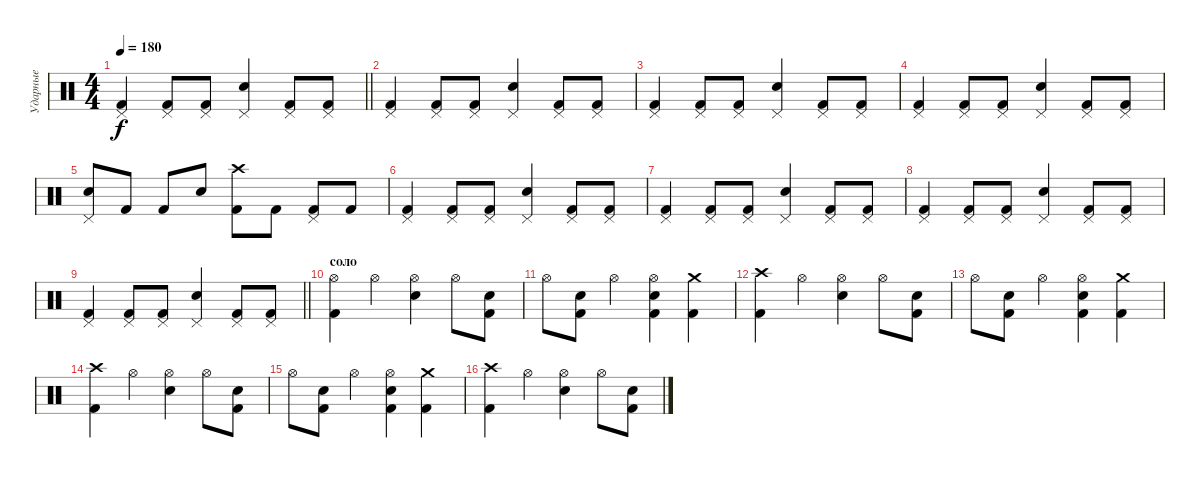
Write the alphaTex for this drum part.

\track ("Ударные" "Ударные") {instrument percussion}
\staff {score}
\articulation defaults
\ts (4 4)
\tempo 180
\clef neutral
\barLineRight lightlight
\ks c
("Kick (hit) 2" "Pedal Hi-Hat (hit)").4{dy f} ("Kick (hit) 2" "Pedal Hi-Hat (hit)").8 ("Kick (hit) 2" "Pedal Hi-Hat (hit)").8 ("Snare (hit) 2" "Pedal Hi-Hat (hit)").4 ("Kick (hit) 2" "Pedal Hi-Hat (hit)").8 ("Kick (hit) 2" "Pedal Hi-Hat (hit)").8 |
("Kick (hit) 2" "Pedal Hi-Hat (hit)").4 ("Kick (hit) 2" "Pedal Hi-Hat (hit)").8 ("Kick (hit) 2" "Pedal Hi-Hat (hit)").8 ("Snare (hit) 2" "Pedal Hi-Hat (hit)").4 ("Kick (hit) 2" "Pedal Hi-Hat (hit)").8 ("Kick (hit) 2" "Pedal Hi-Hat (hit)").8 |
("Kick (hit) 2" "Pedal Hi-Hat (hit)").4 ("Kick (hit) 2" "Pedal Hi-Hat (hit)").8 ("Kick (hit) 2" "Pedal Hi-Hat (hit)").8 ("Snare (hit) 2" "Pedal Hi-Hat (hit)").4 ("Kick (hit) 2" "Pedal Hi-Hat (hit)").8 ("Kick (hit) 2" "Pedal Hi-Hat (hit)").8 |
("Kick (hit) 2" "Pedal Hi-Hat (hit)").4 ("Kick (hit) 2" "Pedal Hi-Hat (hit)").8 ("Kick (hit) 2" "Pedal Hi-Hat (hit)").8 ("Snare (hit) 2" "Pedal Hi-Hat (hit)").4 ("Kick (hit) 2" "Pedal Hi-Hat (hit)").8 ("Kick (hit) 2" "Pedal Hi-Hat (hit)").8 |
("Snare (hit) 2" "Pedal Hi-Hat (hit)").8 "Kick (hit) 2".8 "Kick (hit) 2".8 "Snare (hit) 2".8 ("Kick (hit) 2" "Crash high (hit)").8 "Kick (hit) 2".8 ("Kick (hit) 2" "Pedal Hi-Hat (hit)").8 "Kick (hit) 2".8 |
("Kick (hit) 2" "Pedal Hi-Hat (hit)").4 ("Kick (hit) 2" "Pedal Hi-Hat (hit)").8 ("Kick (hit) 2" "Pedal Hi-Hat (hit)").8 ("Snare (hit) 2" "Pedal Hi-Hat (hit)").4 ("Kick (hit) 2" "Pedal Hi-Hat (hit)").8 ("Kick (hit) 2" "Pedal Hi-Hat (hit)").8 |
("Kick (hit) 2" "Pedal Hi-Hat (hit)").4 ("Kick (hit) 2" "Pedal Hi-Hat (hit)").8 ("Kick (hit) 2" "Pedal Hi-Hat (hit)").8 ("Snare (hit) 2" "Pedal Hi-Hat (hit)").4 ("Kick (hit) 2" "Pedal Hi-Hat (hit)").8 ("Kick (hit) 2" "Pedal Hi-Hat (hit)").8 |
("Kick (hit) 2" "Pedal Hi-Hat (hit)").4 ("Kick (hit) 2" "Pedal Hi-Hat (hit)").8 ("Kick (hit) 2" "Pedal Hi-Hat (hit)").8 ("Snare (hit) 2" "Pedal Hi-Hat (hit)").4 ("Kick (hit) 2" "Pedal Hi-Hat (hit)").8 ("Kick (hit) 2" "Pedal Hi-Hat (hit)").8 |
\barLineRight lightlight
("Kick (hit) 2" "Pedal Hi-Hat (hit)").4 ("Kick (hit) 2" "Pedal Hi-Hat (hit)").8 ("Kick (hit) 2" "Pedal Hi-Hat (hit)").8 ("Snare (hit) 2" "Pedal Hi-Hat (hit)").4 ("Kick (hit) 2" "Pedal Hi-Hat (hit)").8 ("Kick (hit) 2" "Pedal Hi-Hat (hit)").8 |
\section ("" "соло")
("Kick (hit) 2" "Hi-Hat (open)").4 "Hi-Hat (open)".4 ("Snare (hit) 2" "Hi-Hat (open)").4 "Hi-Hat (open)".8 ("Kick (hit) 2" "Snare (hit) 2").8 |
"Hi-Hat (open)".8 ("Kick (hit) 2" "Snare (hit) 2").8 "Hi-Hat (open)".4 ("Snare (hit) 2" "Kick (hit) 2" "Hi-Hat (open)").4 ("Kick (hit) 2" "Crash medium (hit)").4 |
("Kick (hit) 2" "Crash high (hit)").4 "Hi-Hat (open)".4 ("Snare (hit) 2" "Hi-Hat (open)").4 "Hi-Hat (open)".8 ("Kick (hit) 2" "Snare (hit) 2").8 |
"Hi-Hat (open)".8 ("Kick (hit) 2" "Snare (hit) 2").8 "Hi-Hat (open)".4 ("Snare (hit) 2" "Kick (hit) 2" "Hi-Hat (open)").4 ("Kick (hit) 2" "Crash medium (hit)").4 |
("Kick (hit) 2" "Crash high (hit)").4 "Hi-Hat (open)".4 ("Snare (hit) 2" "Hi-Hat (open)").4 "Hi-Hat (open)".8 ("Kick (hit) 2" "Snare (hit) 2").8 |
"Hi-Hat (open)".8 ("Kick (hit) 2" "Snare (hit) 2").8 "Hi-Hat (open)".4 ("Snare (hit) 2" "Kick (hit) 2" "Hi-Hat (open)").4 ("Kick (hit) 2" "Crash medium (hit)").4 |
("Kick (hit) 2" "Crash high (hit)").4 "Hi-Hat (open)".4 ("Snare (hit) 2" "Hi-Hat (open)").4 "Hi-Hat (open)".8 ("Kick (hit) 2" "Snare (hit) 2").8
